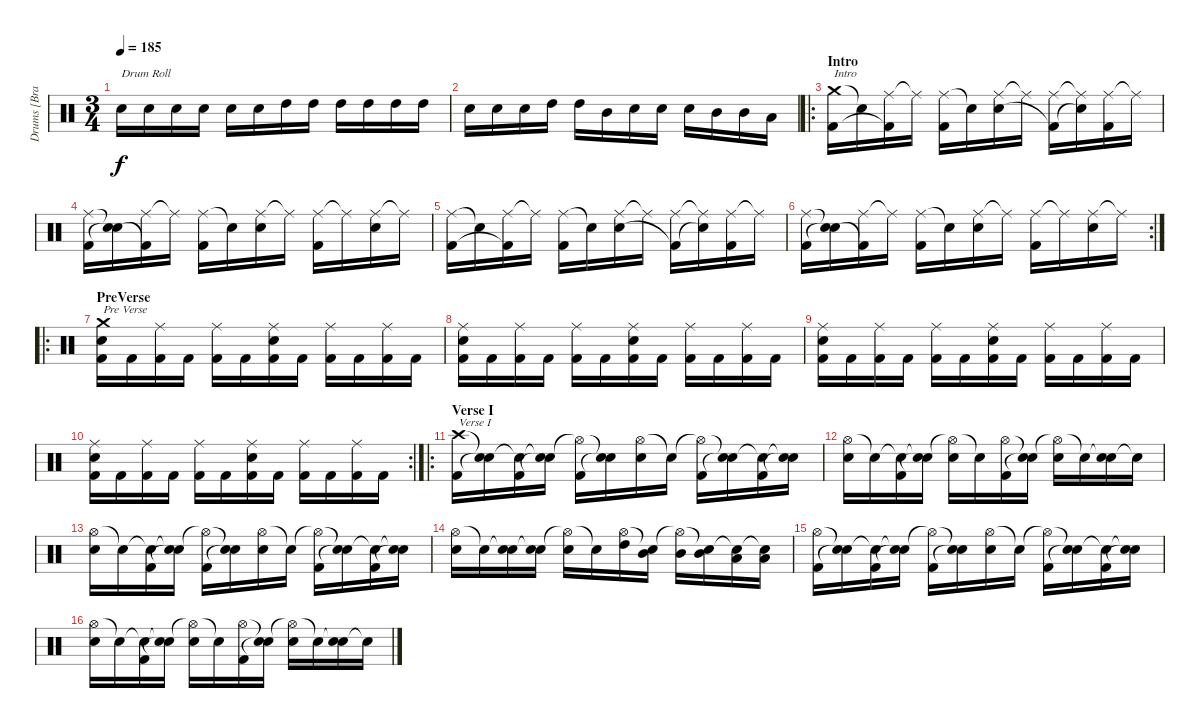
\track ("Drums [Brann Dailor]" "Drums [Bra") {instrument percussion}
\staff {score}
\articulation defaults
\ts (3 4)
\tempo 185
\clef neutral
\ks c "Electric Snare (hit)".16{txt "Drum Roll" dy f} "Electric Snare (hit)".16 "Electric Snare (hit)".16 "Electric Snare (hit)".16 "Electric Snare (hit)".16 "Electric Snare (hit)".16 "High Tom (hit)".16 "High Tom (hit)".16 "High Tom (hit)".16 "High Tom (hit)".16 "High Tom (hit)".16 "High Tom (hit)".16
|
"Electric Snare (hit)".16 "Electric Snare (hit)".16 "Electric Snare (hit)".16 "High Tom (hit)".16 "High Tom (hit)".16 "Mid Tom (hit)".16 "Electric Snare (hit)".16 "Electric Snare (hit)".16 "Electric Snare (hit)".16 "Mid Tom (hit)".16 "Mid Tom (hit)".16 "Low Tom (hit)".16 |
\ro
\section ("" "Intro")
("Crash medium (hit)" "Kick (hit) 2").16{txt "Intro"} "Snare (hit)"{t}.16 ("Ride (middle)" "Kick (hit) 2"{t}).16 "Ride (middle)"{t}.16 ("Ride (middle)" "Kick (hit) 2").16 "Snare (hit)"{t}.16 ("Ride (middle)" "Electric Snare (hit)").16 "Ride (middle)"{t}.16 ("Ride (middle)" "Kick (hit) 2"{t}).16 ("Ride (middle)"{t} "Snare (hit)"{t}).16 ("Ride (middle)" "Kick (hit) 2").16 "Ride (middle)"{t}.16 |
("Ride (middle)" "Kick (hit) 2").16 ("Snare (hit)"{t} "Snare (hit)"{t}).16 ("Ride (middle)" "Kick (hit) 2"{t}).16 "Ride (middle)"{t}.16 ("Ride (middle)" "Kick (hit) 2").16 "Snare (hit)"{t}.16 ("Ride (middle)" "Electric Snare (hit)").16 "Ride (middle)"{t}.16 ("Ride (middle)" "Kick (hit) 2").16 "Ride (middle)"{t}.16 ("Ride (middle)" "Electric Snare (hit)").16 "Ride (middle)"{t}.16 |
("Ride (middle)" "Kick (hit) 2").16 "Snare (hit)"{t}.16 ("Ride (middle)" "Kick (hit) 2"{t}).16 "Ride (middle)"{t}.16 ("Ride (middle)" "Kick (hit) 2").16 "Snare (hit)"{t}.16 ("Ride (middle)" "Electric Snare (hit)").16 "Ride (middle)"{t}.16 ("Ride (middle)" "Kick (hit) 2"{t}).16 ("Ride (middle)"{t} "Snare (hit)"{t}).16 ("Ride (middle)" "Kick (hit) 2").16 "Ride (middle)"{t}.16 |
\rc 2
("Ride (middle)" "Kick (hit) 2").16 ("Snare (hit)"{t} "Snare (hit)"{t}).16 ("Ride (middle)" "Kick (hit) 2"{t}).16 "Ride (middle)"{t}.16 ("Ride (middle)" "Kick (hit) 2").16 "Snare (hit)"{t}.16 ("Ride (middle)" "Electric Snare (hit)").16 "Ride (middle)"{t}.16 ("Ride (middle)" "Kick (hit) 2").16 "Ride (middle)"{t}.16 ("Ride (middle)" "Electric Snare (hit)").16 "Ride (middle)"{t}.16 |
\ro
\section ("" "PreVerse")
("Crash medium (hit)" "Electric Snare (hit)" "Kick (hit) 2").16{txt "Pre Verse"} "Kick (hit) 2".16 ("Ride (middle)" "Kick (hit) 2").16 "Kick (hit) 2".16 ("Ride (middle)" "Kick (hit) 2").16 "Kick (hit) 2".16 ("Ride (middle)" "Electric Snare (hit)" "Kick (hit) 2").16 "Kick (hit) 2".16 ("Ride (middle)" "Kick (hit) 2").16 "Kick (hit) 2".16 ("Ride (middle)" "Kick (hit) 2").16 "Kick (hit) 2".16 |
("Ride (middle)" "Electric Snare (hit)" "Kick (hit) 2").16 "Kick (hit) 2".16 ("Ride (middle)" "Kick (hit) 2").16 "Kick (hit) 2".16 ("Ride (middle)" "Kick (hit) 2").16 "Kick (hit) 2".16 ("Ride (middle)" "Electric Snare (hit)" "Kick (hit) 2").16 "Kick (hit) 2".16 ("Ride (middle)" "Kick (hit) 2").16 "Kick (hit) 2".16 ("Ride (middle)" "Kick (hit) 2").16 "Kick (hit) 2".16 |
("Ride (middle)" "Electric Snare (hit)" "Kick (hit) 2").16 "Kick (hit) 2".16 ("Ride (middle)" "Kick (hit) 2").16 "Kick (hit) 2".16 ("Ride (middle)" "Kick (hit) 2").16 "Kick (hit) 2".16 ("Ride (middle)" "Electric Snare (hit)" "Kick (hit) 2").16 "Kick (hit) 2".16 ("Ride (middle)" "Kick (hit) 2").16 "Kick (hit) 2".16 ("Ride (middle)" "Kick (hit) 2").16 "Kick (hit) 2".16 |
\rc 2
("Ride (middle)" "Electric Snare (hit)" "Kick (hit) 2").16 "Kick (hit) 2".16 ("Ride (middle)" "Kick (hit) 2").16 "Kick (hit) 2".16 ("Ride (middle)" "Kick (hit) 2").16 "Kick (hit) 2".16 ("Ride (middle)" "Electric Snare (hit)" "Kick (hit) 2").16 "Kick (hit) 2".16 ("Ride (middle)" "Kick (hit) 2").16 "Kick (hit) 2".16 ("Ride (middle)" "Kick (hit) 2").16 "Kick (hit) 2".16 |
\ro
\section ("" "Verse I")
("Crash high (hit)" "Kick (hit) 2").16{txt "Verse I"} ("Snare (hit)"{t} "Snare (hit)"{t}).16 ("Snare (hit)"{t} "Kick (hit) 2").16 ("Snare (hit)"{t} "Snare (hit)"{t}).16 ("Hi-Hat (open)"{t} "Kick (hit) 2").16 ("Snare (hit)"{t} "Snare (hit)"{t}).16 ("Hi-Hat (open)" "Electric Snare (hit)").16 "Snare (hit)"{t}.16 ("Hi-Hat (open)"{t} "Kick (hit) 2").16 ("Snare (hit)"{t} "Snare (hit)"{t}).16 ("Snare (hit)"{t} "Kick (hit) 2").16 ("Snare (hit)"{t} "Snare (hit)"{t}).16 |
("Hi-Hat (open)" "Electric Snare (hit)").16 "Snare (hit)"{t}.16 ("Snare (hit)"{t} "Kick (hit) 2").16 ("Snare (hit)"{t} "Snare (hit)"{t}).16 ("Hi-Hat (open)"{t} "Electric Snare (hit)").16 "Snare (hit)"{t}.16 ("Hi-Hat (open)" "Kick (hit) 2").16 ("Snare (hit)"{t} "Snare (hit)"{t}).16 ("Hi-Hat (open)"{t} "Electric Snare (hit)").16 "Snare (hit)"{t}.16 ("Snare (hit)"{t} "Electric Snare (hit)").16 "Snare (hit)"{t}.16 |
("Hi-Hat (open)" "Electric Snare (hit)").16 "Snare (hit)"{t}.16 ("Snare (hit)"{t} "Kick (hit) 2").16 ("Snare (hit)"{t} "Snare (hit)"{t}).16 ("Hi-Hat (open)"{t} "Kick (hit) 2").16 ("Snare (hit)"{t} "Snare (hit)"{t}).16 ("Hi-Hat (open)" "Electric Snare (hit)").16 "Snare (hit)"{t}.16 ("Hi-Hat (open)"{t} "Kick (hit) 2").16 ("Snare (hit)"{t} "Snare (hit)"{t}).16 ("Snare (hit)"{t} "Kick (hit) 2").16 ("Snare (hit)"{t} "Snare (hit)"{t}).16 |
("Hi-Hat (open)" "Electric Snare (hit)").16 "Snare (hit)"{t}.16 ("Snare (hit)"{t} "Electric Snare (hit)").16 ("Snare (hit)"{t} "Electric Snare (hit)").16 ("Hi-Hat (open)"{t} "Electric Snare (hit)").16 "Snare (hit)"{t}.16 ("Hi-Hat (open)" "High Tom (hit)").16 ("Snare (hit)"{t} "Mid Tom (hit)").16 ("Hi-Hat (open)"{t} "Mid Tom (hit)").16 ("Snare (hit)"{t} "Mid Tom (hit)").16 ("Snare (hit)"{t} "Low Tom (hit)").16 ("Snare (hit)"{t} "Low Tom (hit)").16 |
("Hi-Hat (open)" "Kick (hit) 2").16 ("Snare (hit)"{t} "Snare (hit)"{t}).16 ("Snare (hit)"{t} "Kick (hit) 2").16 ("Snare (hit)"{t} "Snare (hit)"{t}).16 ("Hi-Hat (open)"{t} "Kick (hit) 2").16 ("Snare (hit)"{t} "Snare (hit)"{t}).16 ("Hi-Hat (open)" "Electric Snare (hit)").16 "Snare (hit)"{t}.16 ("Hi-Hat (open)"{t} "Kick (hit) 2").16 ("Snare (hit)"{t} "Snare (hit)"{t}).16 ("Snare (hit)"{t} "Kick (hit) 2").16 ("Snare (hit)"{t} "Snare (hit)"{t}).16 |
("Hi-Hat (open)" "Electric Snare (hit)").16 "Snare (hit)"{t}.16 ("Snare (hit)"{t} "Kick (hit) 2").16 ("Snare (hit)"{t} "Snare (hit)"{t}).16 ("Hi-Hat (open)"{t} "Electric Snare (hit)").16 "Snare (hit)"{t}.16 ("Hi-Hat (open)" "Kick (hit) 2").16 ("Snare (hit)"{t} "Snare (hit)"{t}).16 ("Hi-Hat (open)"{t} "Electric Snare (hit)").16 "Snare (hit)"{t}.16 ("Snare (hit)"{t} "Electric Snare (hit)").16 "Snare (hit)"{t}.16
